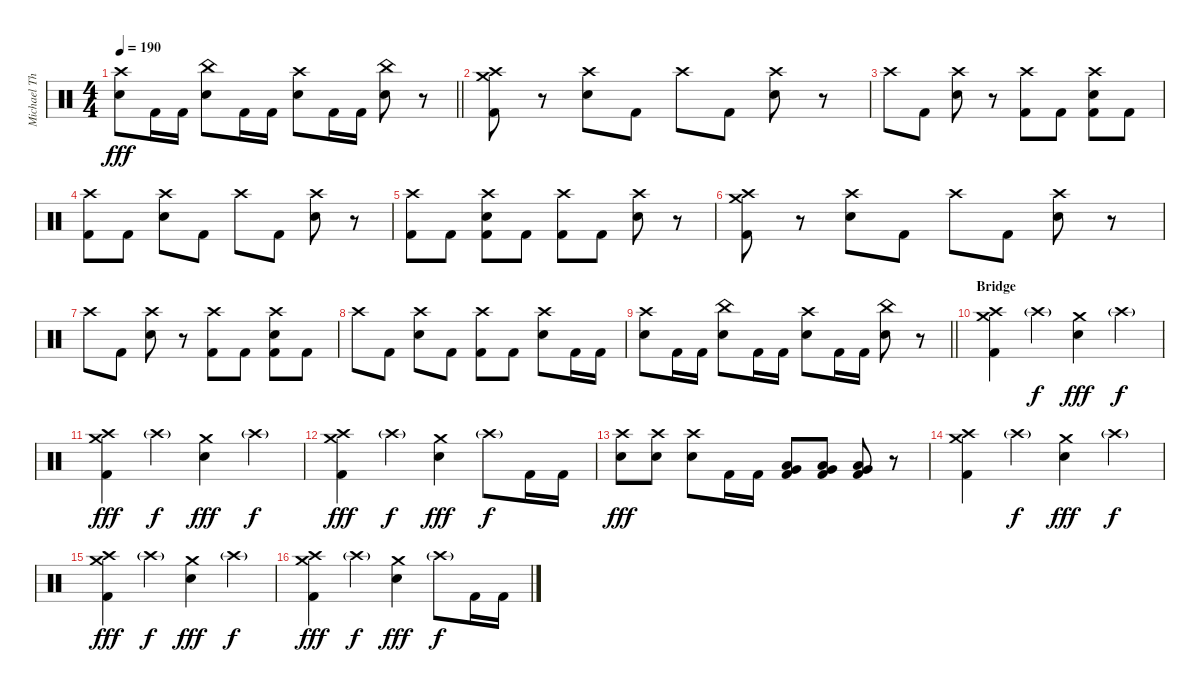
\track ("Michael Thomas Жжёт!" "Michael Th") {instrument percussion}
\staff {score}
\articulation defaults
\ts (4 4)
\tempo 190
\clef neutral
\barLineRight lightlight
\ks c
("Crash high (hit)" "Electric Snare (hit)").8{dy fff} "Kick (hit) 2".16 "Kick (hit) 2".16 ("China (hit)" "Electric Snare (hit)").8 "Kick (hit) 2".16 "Kick (hit) 2".16 ("Crash high (hit)" "Electric Snare (hit)").8 "Kick (hit) 2".16 "Kick (hit) 2".16 ("China (hit)" "Electric Snare (hit)").8 r.8 |
("Crash high (hit)" "Crash medium (hit)" "Kick (hit) 2").8 r.8 ("Crash high (hit)" "Electric Snare (hit)").8 "Kick (hit) 2".8 "Crash high (hit)".8 "Kick (hit) 2".8 ("Crash high (hit)" "Electric Snare (hit)").8 r.8 |
"Crash high (hit)".8 "Kick (hit) 2".8 ("Crash high (hit)" "Electric Snare (hit)").8 r.8 ("Crash high (hit)" "Kick (hit) 2").8 "Kick (hit) 2".8 ("Crash high (hit)" "Electric Snare (hit)" "Kick (hit) 2").8 "Kick (hit) 2".8 |
("Crash high (hit)" "Kick (hit) 2").8 "Kick (hit) 2".8 ("Crash high (hit)" "Electric Snare (hit)").8 "Kick (hit) 2".8 "Crash high (hit)".8 "Kick (hit) 2".8 ("Crash high (hit)" "Electric Snare (hit)").8 r.8 |
("Crash high (hit)" "Kick (hit) 2").8 "Kick (hit) 2".8 ("Crash high (hit)" "Electric Snare (hit)" "Kick (hit) 2").8 "Kick (hit) 2".8 ("Crash high (hit)" "Kick (hit) 2").8 "Kick (hit) 2".8 ("Crash high (hit)" "Electric Snare (hit)").8 r.8 |
("Crash high (hit)" "Crash medium (hit)" "Kick (hit) 2").8 r.8 ("Crash high (hit)" "Electric Snare (hit)").8 "Kick (hit) 2".8 "Crash high (hit)".8 "Kick (hit) 2".8 ("Crash high (hit)" "Electric Snare (hit)").8 r.8 |
"Crash high (hit)".8 "Kick (hit) 2".8 ("Crash high (hit)" "Electric Snare (hit)").8 r.8 ("Crash high (hit)" "Kick (hit) 2").8 "Kick (hit) 2".8 ("Crash high (hit)" "Electric Snare (hit)" "Kick (hit) 2").8 "Kick (hit) 2".8 |
"Crash high (hit)".8 "Kick (hit) 2".8 ("Crash high (hit)" "Electric Snare (hit)").8 "Kick (hit) 2".8 ("Crash high (hit)" "Kick (hit) 2").8 "Kick (hit) 2".8 ("Crash high (hit)" "Electric Snare (hit)").8 "Kick (hit) 2".16 "Kick (hit) 2".16 |
\barLineRight lightlight
("Crash high (hit)" "Electric Snare (hit)").8 "Kick (hit) 2".16 "Kick (hit) 2".16 ("China (hit)" "Electric Snare (hit)").8 "Kick (hit) 2".16 "Kick (hit) 2".16 ("Crash high (hit)" "Electric Snare (hit)").8 "Kick (hit) 2".16 "Kick (hit) 2".16 ("China (hit)" "Electric Snare (hit)").8 r.8 |
\section ("" "Bridge")
("Crash high (hit)" "Crash medium (hit)" "Kick (hit) 2").4 "Crash high (hit)"{g}.4{dy f} ("Crash medium (hit)" "Electric Snare (hit)").4{dy fff} "Crash high (hit)"{g}.4{dy f} |
("Crash high (hit)" "Crash medium (hit)" "Kick (hit) 2").4{dy fff} "Crash high (hit)"{g}.4{dy f} ("Crash medium (hit)" "Electric Snare (hit)").4{dy fff} "Crash high (hit)"{g}.4{dy f} |
("Crash high (hit)" "Crash medium (hit)" "Kick (hit) 2").4{dy fff} "Crash high (hit)"{g}.4{dy f} ("Crash medium (hit)" "Electric Snare (hit)").4{dy fff} "Crash high (hit)"{g}.8{dy f} "Kick (hit) 2".16 "Kick (hit) 2".16 |
("Crash high (hit)" "Electric Snare (hit)").8{dy fff} ("Crash high (hit)" "Electric Snare (hit)").8 ("Crash high (hit)" "Electric Snare (hit)").8 "Kick (hit) 2".16 "Kick (hit) 2".16 ("Low Floor Tom (hit)" "Very Low Tom (hit)" "Kick (hit) 2").8 ("Low Floor Tom (hit)" "Very Low Tom (hit)" "Kick (hit) 2").8 ("Low Floor Tom (hit)" "Very Low Tom (hit)" "Kick (hit) 2").8 r.8 |
("Crash high (hit)" "Crash medium (hit)" "Kick (hit) 2").4 "Crash high (hit)"{g}.4{dy f} ("Crash medium (hit)" "Electric Snare (hit)").4{dy fff} "Crash high (hit)"{g}.4{dy f} |
("Crash high (hit)" "Crash medium (hit)" "Kick (hit) 2").4{dy fff} "Crash high (hit)"{g}.4{dy f} ("Crash medium (hit)" "Electric Snare (hit)").4{dy fff} "Crash high (hit)"{g}.4{dy f} |
("Crash high (hit)" "Crash medium (hit)" "Kick (hit) 2").4{dy fff} "Crash high (hit)"{g}.4{dy f} ("Crash medium (hit)" "Electric Snare (hit)").4{dy fff} "Crash high (hit)"{g}.8{dy f} "Kick (hit) 2".16 "Kick (hit) 2".16
